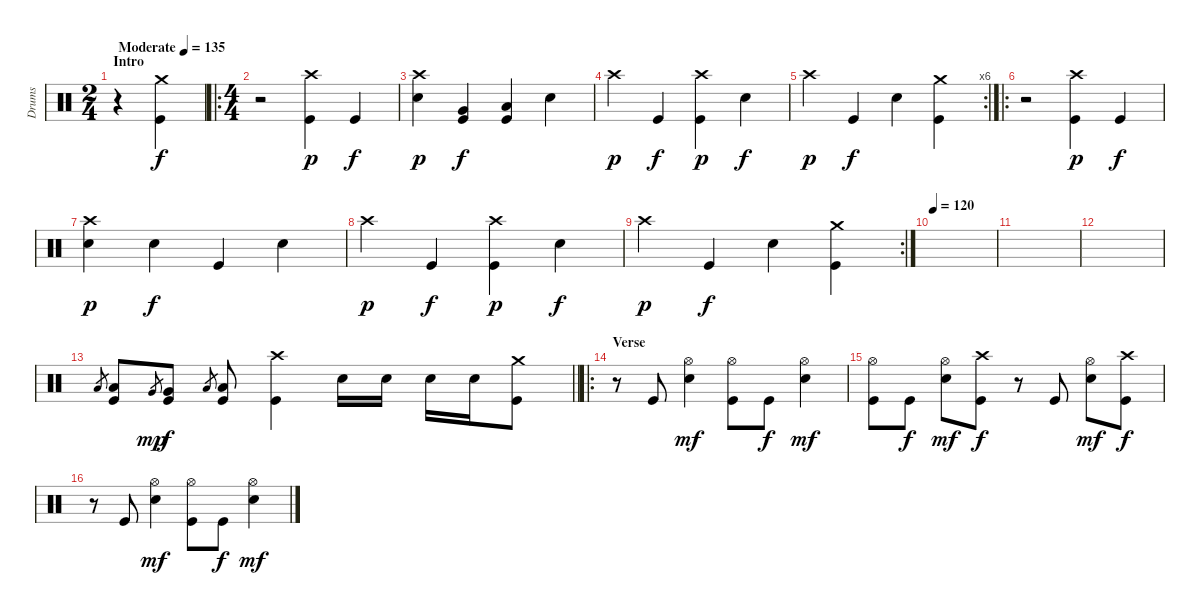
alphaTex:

\track ("Drums" "Drums") {instrument percussion}
\staff {score}
\articulation defaults
\ts (2 4)
\section ("" "Intro")
\tempo (135 "Moderate")
\clef neutral
\ks c
r.4{dy f} ("Crash medium (hit)" "Kick (hit)").4 |
\ro
\ts (4 4)
r.2 ("Crash high (hit)" "Kick (hit)").4{dy p} "Kick (hit)".4{dy f} |
("Crash high (hit)" "Snare (hit) 2").4{dy p} ("Very Low Tom (hit)" "Kick (hit)").4{dy f} ("Low Floor Tom (hit)" "Kick (hit)").4 "Snare (hit) 2".4 |
"Crash high (hit)".4{dy p} "Kick (hit)".4{dy f} ("Crash high (hit)" "Kick (hit)").4{dy p} "Snare (hit) 2".4{dy f} |
\rc 6 "Crash high (hit)".4{dy p} "Kick (hit)".4{dy f} "Snare (hit) 2".4
("Crash medium (hit)" "Kick (hit)").4 |
\ro
r.2 ("Crash high (hit)" "Kick (hit)").4{dy p} "Kick (hit)".4{dy f} |
("Crash high (hit)" "Snare (hit) 2").4{dy p} "Snare (hit) 2".4{dy f} "Kick (hit)".4 "Snare (hit) 2".4 |
"Crash high (hit)".4{dy p} "Kick (hit)".4{dy f} ("Crash high (hit)" "Kick (hit)").4{dy p} "Snare (hit) 2".4{dy f} |
\rc 2 "Crash high (hit)".4{dy p} "Kick (hit)".4{dy f} "Snare (hit) 2".4
("Crash medium (hit)" "Kick (hit)").4 |
\tempo 120
|
|
|
\barLineRight lightlight "Low Tom (hit)".8{gr}
("Low Tom (hit)" "Kick (hit)").8 "Very Low Tom (hit)".8{gr dy mp} ("Very Low Tom (hit)" "Kick (hit)").8{dy f} "Low Floor Tom (hit)".8{gr} ("Low Floor Tom (hit)" "Kick (hit)").8 ("Crash high (hit)" "Kick (hit)").4 "Snare (hit) 2".16 "Snare (hit) 2".16 "Snare (hit) 2".16 "Snare (hit) 2".16 ("Crash medium (hit)" "Kick (hit)").8 |
\ro
\section ("" "Verse")
r.8 "Kick (hit)".8 ("Hi-Hat (open)" "Snare (hit) 2").4{dy mf} ("Hi-Hat (open)" "Kick (hit)").8 "Kick (hit)".8{dy f} ("Hi-Hat (open)" "Snare (hit) 2").4{dy mf} |
("Hi-Hat (open)" "Kick (hit)").8 "Kick (hit)".8{dy f} ("Hi-Hat (open)" "Snare (hit) 2").8{dy mf} ("Crash high (hit)" "Kick (hit)").8{dy f} r.8 "Kick (hit)".8 ("Hi-Hat (open)" "Snare (hit) 2").8{dy mf} ("Crash high (hit)" "Kick (hit)").8{dy f} |
r.8 "Kick (hit)".8 ("Hi-Hat (open)" "Snare (hit) 2").4{dy mf} ("Hi-Hat (open)" "Kick (hit)").8 "Kick (hit)".8{dy f} ("Hi-Hat (open)" "Snare (hit) 2").4{dy mf}
